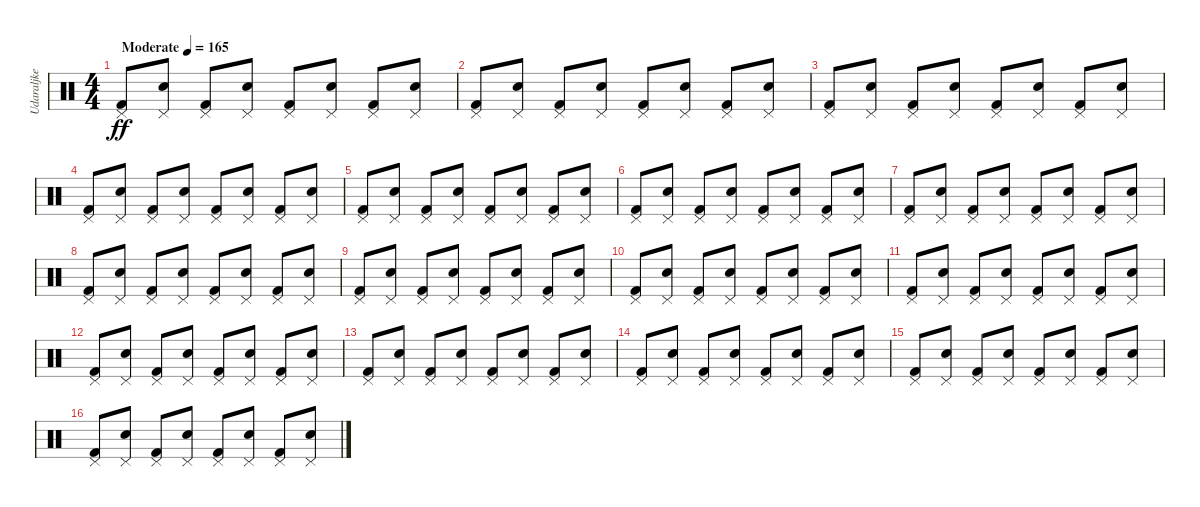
\track ("Udaraljke" "Udaraljke") {instrument percussion}
\staff {score}
\articulation defaults
\ts (4 4)
\tempo (165 "Moderate")
\clef neutral
\ks c
("Kick (hit) 2" "Pedal Hi-Hat (hit)").8{dy ff} ("Snare (hit) 2" "Pedal Hi-Hat (hit)").8 ("Kick (hit) 2" "Pedal Hi-Hat (hit)").8 ("Snare (hit) 2" "Pedal Hi-Hat (hit)").8 ("Kick (hit) 2" "Pedal Hi-Hat (hit)").8 ("Snare (hit) 2" "Pedal Hi-Hat (hit)").8 ("Kick (hit) 2" "Pedal Hi-Hat (hit)").8 ("Snare (hit) 2" "Pedal Hi-Hat (hit)").8 |
("Kick (hit) 2" "Pedal Hi-Hat (hit)").8 ("Snare (hit) 2" "Pedal Hi-Hat (hit)").8 ("Kick (hit) 2" "Pedal Hi-Hat (hit)").8 ("Snare (hit) 2" "Pedal Hi-Hat (hit)").8 ("Kick (hit) 2" "Pedal Hi-Hat (hit)").8 ("Snare (hit) 2" "Pedal Hi-Hat (hit)").8 ("Kick (hit) 2" "Pedal Hi-Hat (hit)").8 ("Snare (hit) 2" "Pedal Hi-Hat (hit)").8 |
("Kick (hit) 2" "Pedal Hi-Hat (hit)").8 ("Snare (hit) 2" "Pedal Hi-Hat (hit)").8 ("Kick (hit) 2" "Pedal Hi-Hat (hit)").8 ("Snare (hit) 2" "Pedal Hi-Hat (hit)").8 ("Kick (hit) 2" "Pedal Hi-Hat (hit)").8 ("Snare (hit) 2" "Pedal Hi-Hat (hit)").8 ("Kick (hit) 2" "Pedal Hi-Hat (hit)").8 ("Snare (hit) 2" "Pedal Hi-Hat (hit)").8 |
("Kick (hit) 2" "Pedal Hi-Hat (hit)").8 ("Snare (hit) 2" "Pedal Hi-Hat (hit)").8 ("Kick (hit) 2" "Pedal Hi-Hat (hit)").8 ("Snare (hit) 2" "Pedal Hi-Hat (hit)").8 ("Kick (hit) 2" "Pedal Hi-Hat (hit)").8 ("Snare (hit) 2" "Pedal Hi-Hat (hit)").8 ("Kick (hit) 2" "Pedal Hi-Hat (hit)").8 ("Snare (hit) 2" "Pedal Hi-Hat (hit)").8 |
("Kick (hit) 2" "Pedal Hi-Hat (hit)").8 ("Snare (hit) 2" "Pedal Hi-Hat (hit)").8 ("Kick (hit) 2" "Pedal Hi-Hat (hit)").8 ("Snare (hit) 2" "Pedal Hi-Hat (hit)").8 ("Kick (hit) 2" "Pedal Hi-Hat (hit)").8 ("Snare (hit) 2" "Pedal Hi-Hat (hit)").8 ("Kick (hit) 2" "Pedal Hi-Hat (hit)").8 ("Snare (hit) 2" "Pedal Hi-Hat (hit)").8 |
("Kick (hit) 2" "Pedal Hi-Hat (hit)").8 ("Snare (hit) 2" "Pedal Hi-Hat (hit)").8 ("Kick (hit) 2" "Pedal Hi-Hat (hit)").8 ("Snare (hit) 2" "Pedal Hi-Hat (hit)").8 ("Kick (hit) 2" "Pedal Hi-Hat (hit)").8 ("Snare (hit) 2" "Pedal Hi-Hat (hit)").8 ("Kick (hit) 2" "Pedal Hi-Hat (hit)").8 ("Snare (hit) 2" "Pedal Hi-Hat (hit)").8 |
("Kick (hit) 2" "Pedal Hi-Hat (hit)").8 ("Snare (hit) 2" "Pedal Hi-Hat (hit)").8 ("Kick (hit) 2" "Pedal Hi-Hat (hit)").8 ("Snare (hit) 2" "Pedal Hi-Hat (hit)").8 ("Kick (hit) 2" "Pedal Hi-Hat (hit)").8 ("Snare (hit) 2" "Pedal Hi-Hat (hit)").8 ("Kick (hit) 2" "Pedal Hi-Hat (hit)").8 ("Snare (hit) 2" "Pedal Hi-Hat (hit)").8 |
("Kick (hit) 2" "Pedal Hi-Hat (hit)").8 ("Snare (hit) 2" "Pedal Hi-Hat (hit)").8 ("Kick (hit) 2" "Pedal Hi-Hat (hit)").8 ("Snare (hit) 2" "Pedal Hi-Hat (hit)").8 ("Kick (hit) 2" "Pedal Hi-Hat (hit)").8 ("Snare (hit) 2" "Pedal Hi-Hat (hit)").8 ("Kick (hit) 2" "Pedal Hi-Hat (hit)").8 ("Snare (hit) 2" "Pedal Hi-Hat (hit)").8 |
("Kick (hit) 2" "Pedal Hi-Hat (hit)").8 ("Snare (hit) 2" "Pedal Hi-Hat (hit)").8 ("Kick (hit) 2" "Pedal Hi-Hat (hit)").8 ("Snare (hit) 2" "Pedal Hi-Hat (hit)").8 ("Kick (hit) 2" "Pedal Hi-Hat (hit)").8 ("Snare (hit) 2" "Pedal Hi-Hat (hit)").8 ("Kick (hit) 2" "Pedal Hi-Hat (hit)").8 ("Snare (hit) 2" "Pedal Hi-Hat (hit)").8 |
("Kick (hit) 2" "Pedal Hi-Hat (hit)").8 ("Snare (hit) 2" "Pedal Hi-Hat (hit)").8 ("Kick (hit) 2" "Pedal Hi-Hat (hit)").8 ("Snare (hit) 2" "Pedal Hi-Hat (hit)").8 ("Kick (hit) 2" "Pedal Hi-Hat (hit)").8 ("Snare (hit) 2" "Pedal Hi-Hat (hit)").8 ("Kick (hit) 2" "Pedal Hi-Hat (hit)").8 ("Snare (hit) 2" "Pedal Hi-Hat (hit)").8 |
("Kick (hit) 2" "Pedal Hi-Hat (hit)").8 ("Snare (hit) 2" "Pedal Hi-Hat (hit)").8 ("Kick (hit) 2" "Pedal Hi-Hat (hit)").8 ("Snare (hit) 2" "Pedal Hi-Hat (hit)").8 ("Kick (hit) 2" "Pedal Hi-Hat (hit)").8 ("Snare (hit) 2" "Pedal Hi-Hat (hit)").8 ("Kick (hit) 2" "Pedal Hi-Hat (hit)").8 ("Snare (hit) 2" "Pedal Hi-Hat (hit)").8 |
("Kick (hit) 2" "Pedal Hi-Hat (hit)").8 ("Snare (hit) 2" "Pedal Hi-Hat (hit)").8 ("Kick (hit) 2" "Pedal Hi-Hat (hit)").8 ("Snare (hit) 2" "Pedal Hi-Hat (hit)").8 ("Kick (hit) 2" "Pedal Hi-Hat (hit)").8 ("Snare (hit) 2" "Pedal Hi-Hat (hit)").8 ("Kick (hit) 2" "Pedal Hi-Hat (hit)").8 ("Snare (hit) 2" "Pedal Hi-Hat (hit)").8 |
("Kick (hit) 2" "Pedal Hi-Hat (hit)").8 ("Snare (hit) 2" "Pedal Hi-Hat (hit)").8 ("Kick (hit) 2" "Pedal Hi-Hat (hit)").8 ("Snare (hit) 2" "Pedal Hi-Hat (hit)").8 ("Kick (hit) 2" "Pedal Hi-Hat (hit)").8 ("Snare (hit) 2" "Pedal Hi-Hat (hit)").8 ("Kick (hit) 2" "Pedal Hi-Hat (hit)").8 ("Snare (hit) 2" "Pedal Hi-Hat (hit)").8 |
("Kick (hit) 2" "Pedal Hi-Hat (hit)").8 ("Snare (hit) 2" "Pedal Hi-Hat (hit)").8 ("Kick (hit) 2" "Pedal Hi-Hat (hit)").8 ("Snare (hit) 2" "Pedal Hi-Hat (hit)").8 ("Kick (hit) 2" "Pedal Hi-Hat (hit)").8 ("Snare (hit) 2" "Pedal Hi-Hat (hit)").8 ("Kick (hit) 2" "Pedal Hi-Hat (hit)").8 ("Snare (hit) 2" "Pedal Hi-Hat (hit)").8 |
("Kick (hit) 2" "Pedal Hi-Hat (hit)").8 ("Snare (hit) 2" "Pedal Hi-Hat (hit)").8 ("Kick (hit) 2" "Pedal Hi-Hat (hit)").8 ("Snare (hit) 2" "Pedal Hi-Hat (hit)").8 ("Kick (hit) 2" "Pedal Hi-Hat (hit)").8 ("Snare (hit) 2" "Pedal Hi-Hat (hit)").8 ("Kick (hit) 2" "Pedal Hi-Hat (hit)").8 ("Snare (hit) 2" "Pedal Hi-Hat (hit)").8 |
("Kick (hit) 2" "Pedal Hi-Hat (hit)").8 ("Snare (hit) 2" "Pedal Hi-Hat (hit)").8 ("Kick (hit) 2" "Pedal Hi-Hat (hit)").8 ("Snare (hit) 2" "Pedal Hi-Hat (hit)").8 ("Kick (hit) 2" "Pedal Hi-Hat (hit)").8 ("Snare (hit) 2" "Pedal Hi-Hat (hit)").8 ("Kick (hit) 2" "Pedal Hi-Hat (hit)").8 ("Snare (hit) 2" "Pedal Hi-Hat (hit)").8
